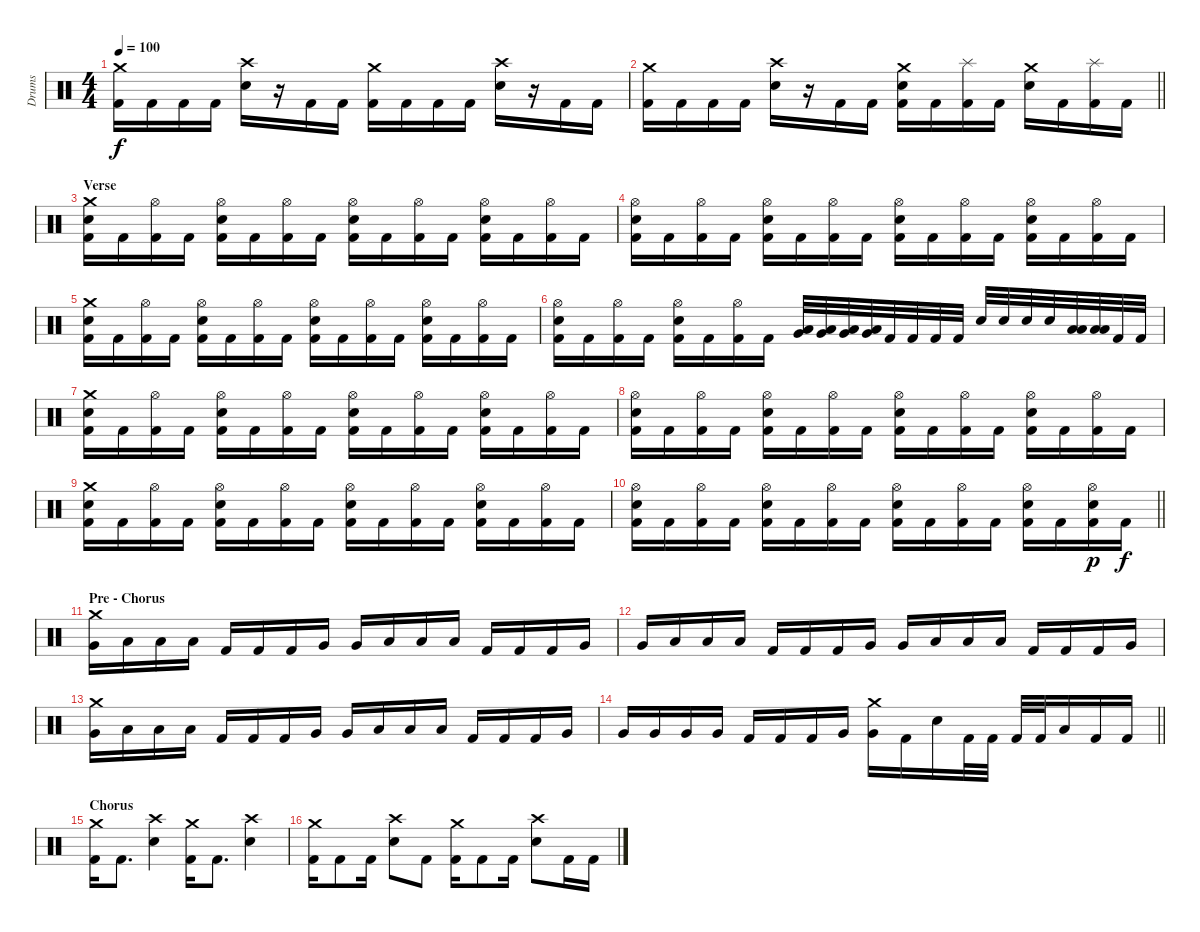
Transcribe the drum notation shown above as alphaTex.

\track ("Drums" "Drums") {instrument percussion}
\staff {score}
\articulation defaults
\ts (4 4)
\tempo 100
\clef neutral
\ks c
("Crash medium (hit)" "Kick (hit) 2").16{dy f} "Kick (hit) 2".16 "Kick (hit) 2".16 "Kick (hit) 2".16 ("Crash high (hit)" "Snare (hit) 2").16 r.16 "Kick (hit) 2".16 "Kick (hit) 2".16 ("Crash medium (hit)" "Kick (hit) 2").16 "Kick (hit) 2".16 "Kick (hit) 2".16 "Kick (hit) 2".16 ("Crash high (hit)" "Snare (hit) 2").16 r.16 "Kick (hit) 2".16 "Kick (hit) 2".16 |
\barLineRight lightlight
("Crash medium (hit)" "Kick (hit) 2").16 "Kick (hit) 2".16 "Kick (hit) 2".16 "Kick (hit) 2".16 ("Crash high (hit)" "Snare (hit) 2").16 r.16 "Kick (hit) 2".16 "Kick (hit) 2".16 ("Crash medium (hit)" "Snare (hit) 2" "Kick (hit) 2").16 "Kick (hit) 2".16 ("Splash (hit)" "Kick (hit) 2").16 "Kick (hit) 2".16 ("Crash medium (hit)" "Snare (hit) 2").16 "Kick (hit) 2".16 ("Splash (hit)" "Kick (hit) 2").16 "Kick (hit) 2".16 |
\section ("" "Verse")
("Crash medium (hit)" "Snare (hit) 2" "Kick (hit) 2").16 "Kick (hit) 2".16 ("Hi-Hat (open)" "Kick (hit) 2").16 "Kick (hit) 2".16 ("Hi-Hat (open)" "Snare (hit) 2" "Kick (hit) 2").16 "Kick (hit) 2".16 ("Hi-Hat (open)" "Kick (hit) 2").16 "Kick (hit) 2".16 ("Hi-Hat (open)" "Snare (hit) 2" "Kick (hit) 2").16 "Kick (hit) 2".16 ("Hi-Hat (open)" "Kick (hit) 2").16 "Kick (hit) 2".16 ("Hi-Hat (open)" "Snare (hit) 2" "Kick (hit) 2").16 "Kick (hit) 2".16 ("Hi-Hat (open)" "Kick (hit) 2").16 "Kick (hit) 2".16 |
("Hi-Hat (open)" "Snare (hit) 2" "Kick (hit) 2").16 "Kick (hit) 2".16 ("Hi-Hat (open)" "Kick (hit) 2").16 "Kick (hit) 2".16 ("Hi-Hat (open)" "Snare (hit) 2" "Kick (hit) 2").16 "Kick (hit) 2".16 ("Hi-Hat (open)" "Kick (hit) 2").16 "Kick (hit) 2".16 ("Hi-Hat (open)" "Snare (hit) 2" "Kick (hit) 2").16 "Kick (hit) 2".16 ("Hi-Hat (open)" "Kick (hit) 2").16 "Kick (hit) 2".16 ("Hi-Hat (open)" "Snare (hit) 2" "Kick (hit) 2").16 "Kick (hit) 2".16 ("Hi-Hat (open)" "Kick (hit) 2").16 "Kick (hit) 2".16 |
("Crash medium (hit)" "Snare (hit) 2" "Kick (hit) 2").16 "Kick (hit) 2".16 ("Hi-Hat (open)" "Kick (hit) 2").16 "Kick (hit) 2".16 ("Hi-Hat (open)" "Snare (hit) 2" "Kick (hit) 2").16 "Kick (hit) 2".16 ("Hi-Hat (open)" "Kick (hit) 2").16 "Kick (hit) 2".16 ("Hi-Hat (open)" "Snare (hit) 2" "Kick (hit) 2").16 "Kick (hit) 2".16 ("Hi-Hat (open)" "Kick (hit) 2").16 "Kick (hit) 2".16 ("Hi-Hat (open)" "Snare (hit) 2" "Kick (hit) 2").16 "Kick (hit) 2".16 ("Hi-Hat (open)" "Kick (hit) 2").16 "Kick (hit) 2".16 |
("Hi-Hat (open)" "Snare (hit) 2" "Kick (hit) 2").16 "Kick (hit) 2".16 ("Hi-Hat (open)" "Kick (hit) 2").16 "Kick (hit) 2".16 ("Hi-Hat (open)" "Snare (hit) 2" "Kick (hit) 2").16 "Kick (hit) 2".16 ("Hi-Hat (open)" "Kick (hit) 2").16 "Kick (hit) 2".16 ("Low Tom (hit)" "Very Low Tom (hit)").32 ("Low Tom (hit)" "Very Low Tom (hit)").32 ("Low Tom (hit)" "Very Low Tom (hit)").32 ("Low Tom (hit)" "Very Low Tom (hit)").32 "Kick (hit) 2".32 "Kick (hit) 2".32 "Kick (hit) 2".32 "Kick (hit) 2".32 "Electric Snare (hit)".32 "Electric Snare (hit)".32 "Electric Snare (hit)".32 "Electric Snare (hit)".32 ("Low Tom (hit)" "Low Tom (hit)").32 ("Low Tom (hit)" "Low Tom (hit)").32 "Kick (hit) 2".32 "Kick (hit) 2".32 |
("Crash medium (hit)" "Snare (hit) 2" "Kick (hit) 2").16 "Kick (hit) 2".16 ("Hi-Hat (open)" "Kick (hit) 2").16 "Kick (hit) 2".16 ("Hi-Hat (open)" "Snare (hit) 2" "Kick (hit) 2").16 "Kick (hit) 2".16 ("Hi-Hat (open)" "Kick (hit) 2").16 "Kick (hit) 2".16 ("Hi-Hat (open)" "Snare (hit) 2" "Kick (hit) 2").16 "Kick (hit) 2".16 ("Hi-Hat (open)" "Kick (hit) 2").16 "Kick (hit) 2".16 ("Hi-Hat (open)" "Snare (hit) 2" "Kick (hit) 2").16 "Kick (hit) 2".16 ("Hi-Hat (open)" "Kick (hit) 2").16 "Kick (hit) 2".16 |
("Hi-Hat (open)" "Snare (hit) 2" "Kick (hit) 2").16 "Kick (hit) 2".16 ("Hi-Hat (open)" "Kick (hit) 2").16 "Kick (hit) 2".16 ("Hi-Hat (open)" "Snare (hit) 2" "Kick (hit) 2").16 "Kick (hit) 2".16 ("Hi-Hat (open)" "Kick (hit) 2").16 "Kick (hit) 2".16 ("Hi-Hat (open)" "Snare (hit) 2" "Kick (hit) 2").16 "Kick (hit) 2".16 ("Hi-Hat (open)" "Kick (hit) 2").16 "Kick (hit) 2".16 ("Hi-Hat (open)" "Snare (hit) 2" "Kick (hit) 2").16 "Kick (hit) 2".16 ("Hi-Hat (open)" "Kick (hit) 2").16 "Kick (hit) 2".16 |
("Crash medium (hit)" "Snare (hit) 2" "Kick (hit) 2").16 "Kick (hit) 2".16 ("Hi-Hat (open)" "Kick (hit) 2").16 "Kick (hit) 2".16 ("Hi-Hat (open)" "Snare (hit) 2" "Kick (hit) 2").16 "Kick (hit) 2".16 ("Hi-Hat (open)" "Kick (hit) 2").16 "Kick (hit) 2".16 ("Hi-Hat (open)" "Snare (hit) 2" "Kick (hit) 2").16 "Kick (hit) 2".16 ("Hi-Hat (open)" "Kick (hit) 2").16 "Kick (hit) 2".16 ("Hi-Hat (open)" "Snare (hit) 2" "Kick (hit) 2").16 "Kick (hit) 2".16 ("Hi-Hat (open)" "Kick (hit) 2").16 "Kick (hit) 2".16 |
\barLineRight lightlight
("Hi-Hat (open)" "Snare (hit) 2" "Kick (hit) 2").16 "Kick (hit) 2".16 ("Hi-Hat (open)" "Kick (hit) 2").16 "Kick (hit) 2".16 ("Hi-Hat (open)" "Snare (hit) 2" "Kick (hit) 2").16 "Kick (hit) 2".16 ("Hi-Hat (open)" "Kick (hit) 2").16 "Kick (hit) 2".16 ("Hi-Hat (open)" "Snare (hit) 2" "Kick (hit) 2").16 "Kick (hit) 2".16 ("Hi-Hat (open)" "Kick (hit) 2").16 "Kick (hit) 2".16 ("Hi-Hat (open)" "Snare (hit) 2" "Kick (hit) 2").16 "Kick (hit) 2".16 ("Hi-Hat (open)" "Electric Snare (hit)" "Kick (hit) 2").16{dy p} "Kick (hit) 2".16{dy f} |
\section ("" "Pre - Chorus")
("Crash medium (hit)" "Very Low Tom (hit)").16 "Low Floor Tom (hit)".16 "Low Floor Tom (hit)".16 "Low Floor Tom (hit)".16 "Kick (hit) 2".16 "Kick (hit) 2".16 "Kick (hit) 2".16 "Very Low Tom (hit)".16 "Very Low Tom (hit)".16 "Low Floor Tom (hit)".16 "Low Floor Tom (hit)".16 "Low Floor Tom (hit)".16 "Kick (hit) 2".16 "Kick (hit) 2".16 "Kick (hit) 2".16 "Very Low Tom (hit)".16 |
"Very Low Tom (hit)".16 "Low Floor Tom (hit)".16 "Low Floor Tom (hit)".16 "Low Floor Tom (hit)".16 "Kick (hit) 2".16 "Kick (hit) 2".16 "Kick (hit) 2".16 "Very Low Tom (hit)".16 "Very Low Tom (hit)".16 "Low Floor Tom (hit)".16 "Low Floor Tom (hit)".16 "Low Floor Tom (hit)".16 "Kick (hit) 2".16 "Kick (hit) 2".16 "Kick (hit) 2".16 "Very Low Tom (hit)".16 |
("Crash medium (hit)" "Very Low Tom (hit)").16 "Low Floor Tom (hit)".16 "Low Floor Tom (hit)".16 "Low Floor Tom (hit)".16 "Kick (hit) 2".16 "Kick (hit) 2".16 "Kick (hit) 2".16 "Very Low Tom (hit)".16 "Very Low Tom (hit)".16 "Low Floor Tom (hit)".16 "Low Floor Tom (hit)".16 "Low Floor Tom (hit)".16 "Kick (hit) 2".16 "Kick (hit) 2".16 "Kick (hit) 2".16 "Very Low Tom (hit)".16 |
\barLineRight lightlight "Very Low Tom (hit)".16 "Very Low Tom (hit)".16 "Very Low Tom (hit)".16 "Very Low Tom (hit)".16 "Kick (hit) 2".16 "Kick (hit) 2".16 "Kick (hit) 2".16 "Very Low Tom (hit)".16
("Crash medium (hit)" "Very Low Tom (hit)").16 "Kick (hit) 2".16 "Electric Snare (hit)".16 "Kick (hit) 2".32 "Kick (hit) 2".32 "Kick (hit) 2".32 "Kick (hit) 2".32 "Low Tom (hit)".16 "Kick (hit) 2".16 "Kick (hit) 2".16 |
\section ("" "Chorus")
("Crash medium (hit)" "Kick (hit) 2").16 "Kick (hit) 2".8{d} ("Crash high (hit)" "Electric Snare (hit)").4 ("Crash medium (hit)" "Kick (hit) 2").16 "Kick (hit) 2".8{d} ("Crash high (hit)" "Electric Snare (hit)").4 |
("Crash medium (hit)" "Kick (hit) 2").16 "Kick (hit) 2".8 "Kick (hit) 2".16 ("Crash high (hit)" "Electric Snare (hit)").8 "Kick (hit) 2".8 ("Crash medium (hit)" "Kick (hit) 2").16 "Kick (hit) 2".8 "Kick (hit) 2".16 ("Crash high (hit)" "Electric Snare (hit)").8 "Kick (hit) 2".16 "Kick (hit) 2".16
